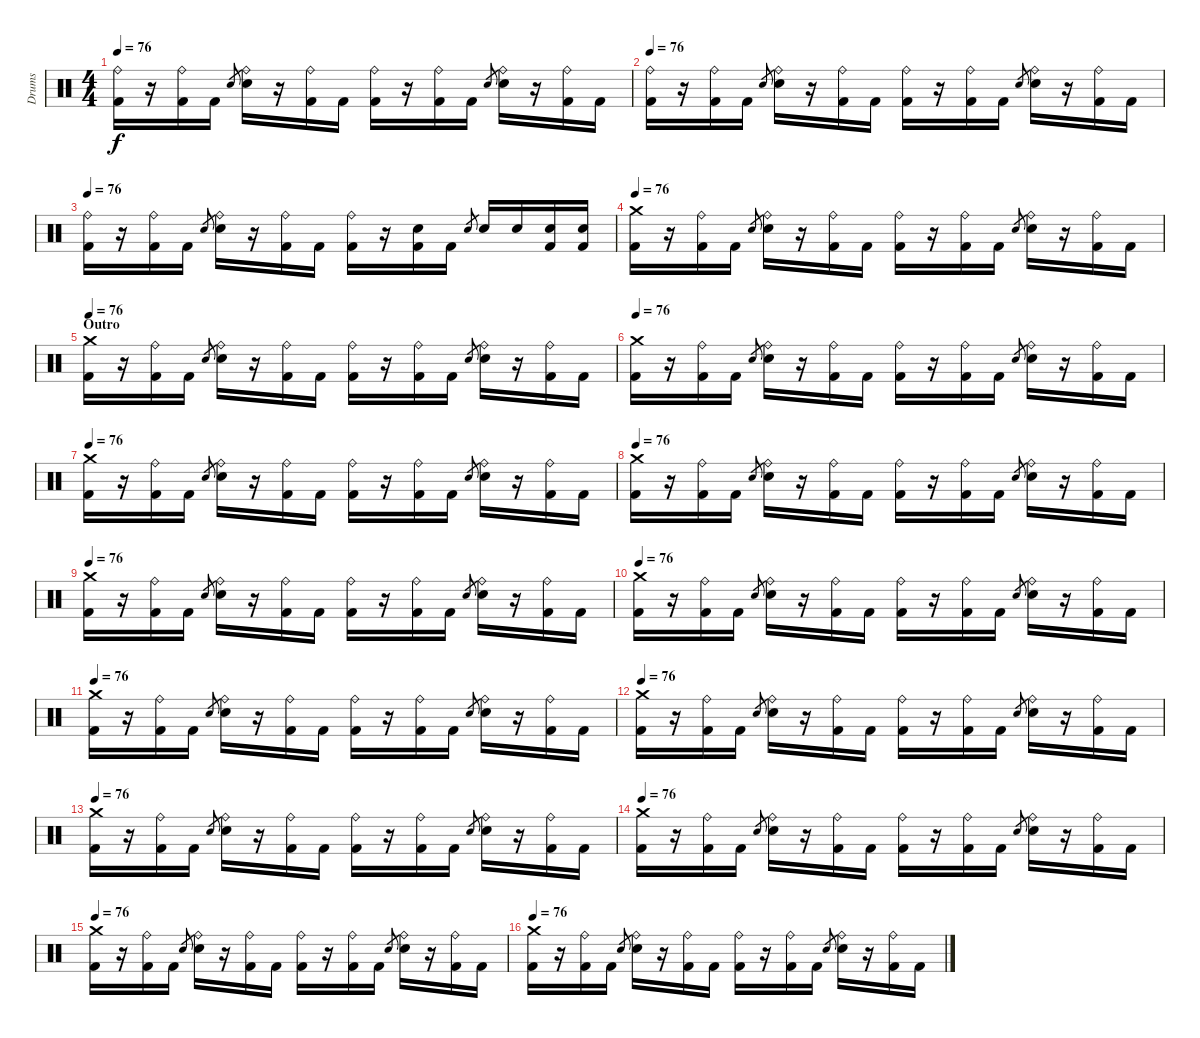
\track ("Drums" "Drums") {instrument percussion}
\staff {score}
\articulation defaults
\ts (4 4)
\tempo 76
\clef neutral
\ks c
("Ride (bell)" "Kick (hit) 2").16{dy f} r.16 ("Ride (bell)" "Kick (hit) 2").16 "Kick (hit) 2".16 "Electric Snare (hit)".8{gr} ("Ride (bell)" "Electric Snare (hit)").16 r.16 ("Ride (bell)" "Kick (hit) 2").16 "Kick (hit) 2".16 ("Ride (bell)" "Kick (hit) 2").16 r.16 ("Ride (bell)" "Kick (hit) 2").16 "Kick (hit) 2".16 "Electric Snare (hit)".8{gr} ("Ride (bell)" "Electric Snare (hit)").16 r.16 ("Ride (bell)" "Kick (hit) 2").16 "Kick (hit) 2".16 |
\tempo 76
("Ride (bell)" "Kick (hit) 2").16 r.16 ("Ride (bell)" "Kick (hit) 2").16 "Kick (hit) 2".16 "Electric Snare (hit)".8{gr} ("Ride (bell)" "Electric Snare (hit)").16 r.16 ("Ride (bell)" "Kick (hit) 2").16 "Kick (hit) 2".16 ("Ride (bell)" "Kick (hit) 2").16 r.16 ("Ride (bell)" "Kick (hit) 2").16 "Kick (hit) 2".16 "Electric Snare (hit)".8{gr} ("Ride (bell)" "Electric Snare (hit)").16 r.16 ("Ride (bell)" "Kick (hit) 2").16 "Kick (hit) 2".16 |
\tempo 76
("Ride (bell)" "Kick (hit) 2").16 r.16 ("Ride (bell)" "Kick (hit) 2").16 "Kick (hit) 2".16 "Electric Snare (hit)".8{gr} ("Ride (bell)" "Electric Snare (hit)").16 r.16 ("Ride (bell)" "Kick (hit) 2").16 "Kick (hit) 2".16 ("Ride (bell)" "Kick (hit) 2").16 r.16 ("Kick (hit) 2" "Electric Snare (hit)").16 "Kick (hit) 2".16 "Electric Snare (hit)".8{gr} "Electric Snare (hit)".16 "Electric Snare (hit)".16 ("Kick (hit) 2" "Electric Snare (hit)").16 ("Kick (hit) 2" "Electric Snare (hit)").16 |
\tempo 76
("Crash medium (hit)" "Kick (hit) 2").16 r.16 ("Ride (bell)" "Kick (hit) 2").16 "Kick (hit) 2".16 "Electric Snare (hit)".8{gr} ("Ride (bell)" "Electric Snare (hit)").16 r.16 ("Ride (bell)" "Kick (hit) 2").16 "Kick (hit) 2".16 ("Ride (bell)" "Kick (hit) 2").16 r.16 ("Ride (bell)" "Kick (hit) 2").16 "Kick (hit) 2".16 "Electric Snare (hit)".8{gr} ("Ride (bell)" "Electric Snare (hit)").16 r.16 ("Ride (bell)" "Kick (hit) 2").16 "Kick (hit) 2".16 |
\section ("" "Outro")
\tempo 76
("Crash medium (hit)" "Kick (hit) 2").16 r.16 ("Ride (bell)" "Kick (hit) 2").16 "Kick (hit) 2".16 "Electric Snare (hit)".8{gr} ("Ride (bell)" "Electric Snare (hit)").16 r.16 ("Ride (bell)" "Kick (hit) 2").16 "Kick (hit) 2".16 ("Ride (bell)" "Kick (hit) 2").16 r.16 ("Ride (bell)" "Kick (hit) 2").16 "Kick (hit) 2".16 "Electric Snare (hit)".8{gr} ("Ride (bell)" "Electric Snare (hit)").16 r.16 ("Ride (bell)" "Kick (hit) 2").16 "Kick (hit) 2".16 |
\tempo 76
("Crash medium (hit)" "Kick (hit) 2").16 r.16 ("Ride (bell)" "Kick (hit) 2").16 "Kick (hit) 2".16 "Electric Snare (hit)".8{gr} ("Ride (bell)" "Electric Snare (hit)").16 r.16 ("Ride (bell)" "Kick (hit) 2").16 "Kick (hit) 2".16 ("Ride (bell)" "Kick (hit) 2").16 r.16 ("Ride (bell)" "Kick (hit) 2").16 "Kick (hit) 2".16 "Electric Snare (hit)".8{gr} ("Ride (bell)" "Electric Snare (hit)").16 r.16 ("Ride (bell)" "Kick (hit) 2").16 "Kick (hit) 2".16 |
\tempo 76
("Crash medium (hit)" "Kick (hit) 2").16 r.16 ("Ride (bell)" "Kick (hit) 2").16 "Kick (hit) 2".16 "Electric Snare (hit)".8{gr} ("Ride (bell)" "Electric Snare (hit)").16 r.16 ("Ride (bell)" "Kick (hit) 2").16 "Kick (hit) 2".16 ("Ride (bell)" "Kick (hit) 2").16 r.16 ("Ride (bell)" "Kick (hit) 2").16 "Kick (hit) 2".16 "Electric Snare (hit)".8{gr} ("Ride (bell)" "Electric Snare (hit)").16 r.16 ("Ride (bell)" "Kick (hit) 2").16 "Kick (hit) 2".16 |
\tempo 76
("Crash medium (hit)" "Kick (hit) 2").16 r.16 ("Ride (bell)" "Kick (hit) 2").16 "Kick (hit) 2".16 "Electric Snare (hit)".8{gr} ("Ride (bell)" "Electric Snare (hit)").16 r.16 ("Ride (bell)" "Kick (hit) 2").16 "Kick (hit) 2".16 ("Ride (bell)" "Kick (hit) 2").16 r.16 ("Ride (bell)" "Kick (hit) 2").16 "Kick (hit) 2".16 "Electric Snare (hit)".8{gr} ("Ride (bell)" "Electric Snare (hit)").16 r.16 ("Ride (bell)" "Kick (hit) 2").16 "Kick (hit) 2".16 |
\tempo 76
("Crash medium (hit)" "Kick (hit) 2").16 r.16 ("Ride (bell)" "Kick (hit) 2").16 "Kick (hit) 2".16 "Electric Snare (hit)".8{gr} ("Ride (bell)" "Electric Snare (hit)").16 r.16 ("Ride (bell)" "Kick (hit) 2").16 "Kick (hit) 2".16 ("Ride (bell)" "Kick (hit) 2").16 r.16 ("Ride (bell)" "Kick (hit) 2").16 "Kick (hit) 2".16 "Electric Snare (hit)".8{gr} ("Ride (bell)" "Electric Snare (hit)").16 r.16 ("Ride (bell)" "Kick (hit) 2").16 "Kick (hit) 2".16 |
\tempo 76
("Crash medium (hit)" "Kick (hit) 2").16 r.16 ("Ride (bell)" "Kick (hit) 2").16 "Kick (hit) 2".16 "Electric Snare (hit)".8{gr} ("Ride (bell)" "Electric Snare (hit)").16 r.16 ("Ride (bell)" "Kick (hit) 2").16 "Kick (hit) 2".16 ("Ride (bell)" "Kick (hit) 2").16 r.16 ("Ride (bell)" "Kick (hit) 2").16 "Kick (hit) 2".16 "Electric Snare (hit)".8{gr} ("Ride (bell)" "Electric Snare (hit)").16 r.16 ("Ride (bell)" "Kick (hit) 2").16 "Kick (hit) 2".16 |
\tempo 76
("Crash medium (hit)" "Kick (hit) 2").16 r.16 ("Ride (bell)" "Kick (hit) 2").16 "Kick (hit) 2".16 "Electric Snare (hit)".8{gr} ("Ride (bell)" "Electric Snare (hit)").16 r.16 ("Ride (bell)" "Kick (hit) 2").16 "Kick (hit) 2".16 ("Ride (bell)" "Kick (hit) 2").16 r.16 ("Ride (bell)" "Kick (hit) 2").16 "Kick (hit) 2".16 "Electric Snare (hit)".8{gr} ("Ride (bell)" "Electric Snare (hit)").16 r.16 ("Ride (bell)" "Kick (hit) 2").16 "Kick (hit) 2".16 |
\tempo 76
("Crash medium (hit)" "Kick (hit) 2").16 r.16 ("Ride (bell)" "Kick (hit) 2").16 "Kick (hit) 2".16 "Electric Snare (hit)".8{gr} ("Ride (bell)" "Electric Snare (hit)").16 r.16 ("Ride (bell)" "Kick (hit) 2").16 "Kick (hit) 2".16 ("Ride (bell)" "Kick (hit) 2").16 r.16 ("Ride (bell)" "Kick (hit) 2").16 "Kick (hit) 2".16 "Electric Snare (hit)".8{gr} ("Ride (bell)" "Electric Snare (hit)").16 r.16 ("Ride (bell)" "Kick (hit) 2").16 "Kick (hit) 2".16 |
\tempo 76
("Crash medium (hit)" "Kick (hit) 2").16 r.16 ("Ride (bell)" "Kick (hit) 2").16 "Kick (hit) 2".16 "Electric Snare (hit)".8{gr} ("Ride (bell)" "Electric Snare (hit)").16 r.16 ("Ride (bell)" "Kick (hit) 2").16 "Kick (hit) 2".16 ("Ride (bell)" "Kick (hit) 2").16 r.16 ("Ride (bell)" "Kick (hit) 2").16 "Kick (hit) 2".16 "Electric Snare (hit)".8{gr} ("Ride (bell)" "Electric Snare (hit)").16 r.16 ("Ride (bell)" "Kick (hit) 2").16 "Kick (hit) 2".16 |
\tempo 76
("Crash medium (hit)" "Kick (hit) 2").16 r.16 ("Ride (bell)" "Kick (hit) 2").16 "Kick (hit) 2".16 "Electric Snare (hit)".8{gr} ("Ride (bell)" "Electric Snare (hit)").16 r.16 ("Ride (bell)" "Kick (hit) 2").16 "Kick (hit) 2".16 ("Ride (bell)" "Kick (hit) 2").16 r.16 ("Ride (bell)" "Kick (hit) 2").16 "Kick (hit) 2".16 "Electric Snare (hit)".8{gr} ("Ride (bell)" "Electric Snare (hit)").16 r.16 ("Ride (bell)" "Kick (hit) 2").16 "Kick (hit) 2".16 |
\tempo 76
("Crash medium (hit)" "Kick (hit) 2").16 r.16 ("Ride (bell)" "Kick (hit) 2").16 "Kick (hit) 2".16 "Electric Snare (hit)".8{gr} ("Ride (bell)" "Electric Snare (hit)").16 r.16 ("Ride (bell)" "Kick (hit) 2").16 "Kick (hit) 2".16 ("Ride (bell)" "Kick (hit) 2").16 r.16 ("Ride (bell)" "Kick (hit) 2").16 "Kick (hit) 2".16 "Electric Snare (hit)".8{gr} ("Ride (bell)" "Electric Snare (hit)").16 r.16 ("Ride (bell)" "Kick (hit) 2").16 "Kick (hit) 2".16 |
\tempo 76
("Crash medium (hit)" "Kick (hit) 2").16 r.16 ("Ride (bell)" "Kick (hit) 2").16 "Kick (hit) 2".16 "Electric Snare (hit)".8{gr} ("Ride (bell)" "Electric Snare (hit)").16 r.16 ("Ride (bell)" "Kick (hit) 2").16 "Kick (hit) 2".16 ("Ride (bell)" "Kick (hit) 2").16 r.16 ("Ride (bell)" "Kick (hit) 2").16 "Kick (hit) 2".16 "Electric Snare (hit)".8{gr} ("Ride (bell)" "Electric Snare (hit)").16 r.16 ("Ride (bell)" "Kick (hit) 2").16 "Kick (hit) 2".16
